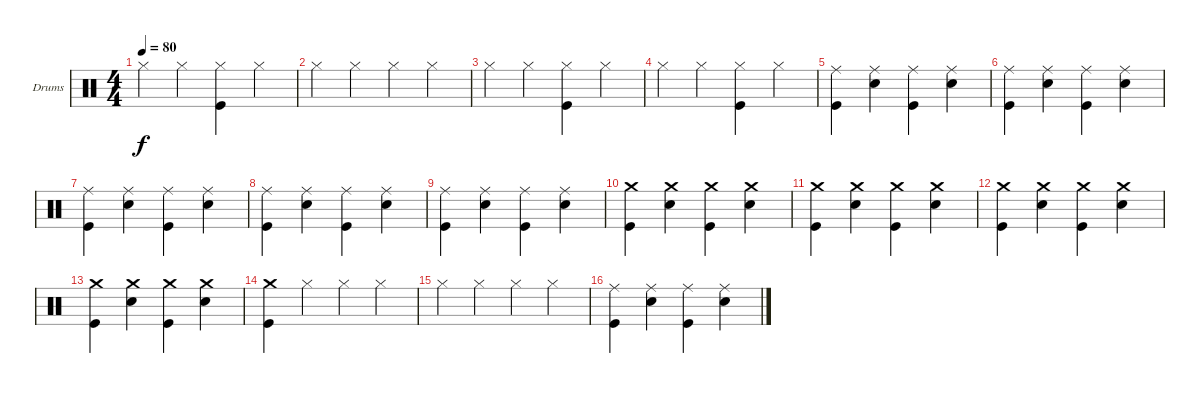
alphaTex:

\bracketExtendMode groupsimilarinstruments
\firstSystemTrackNameOrientation horizontal
\otherSystemsTrackNameOrientation horizontal
\track ("Drumkit" "Drums") {instrument percussion}
\staff {score}
\articulation defaults
\ts (4 4)
\tempo 80
\clef neutral
\ks c "Hi-Hat (closed)".4{dy f} "Hi-Hat (closed)".4
("Hi-Hat (closed)" "Kick (hit)").4 "Hi-Hat (closed)".4 |
"Hi-Hat (closed)".4 "Hi-Hat (closed)".4 "Hi-Hat (closed)".4 "Hi-Hat (closed)".4 |
"Hi-Hat (closed)".4 "Hi-Hat (closed)".4 ("Hi-Hat (closed)" "Kick (hit)").4 "Hi-Hat (closed)".4 |
"Hi-Hat (closed)".4 "Hi-Hat (closed)".4 ("Hi-Hat (closed)" "Kick (hit)").4 "Hi-Hat (closed)".4 |
("Ride (middle)" "Kick (hit)").4 ("Ride (middle)" "Snare (hit) 2").4 ("Ride (middle)" "Kick (hit)").4 ("Ride (middle)" "Snare (hit) 2").4 |
("Ride (middle)" "Kick (hit)").4 ("Ride (middle)" "Snare (hit) 2").4 ("Ride (middle)" "Kick (hit)").4 ("Ride (middle)" "Snare (hit) 2").4 |
("Ride (middle)" "Kick (hit)").4 ("Ride (middle)" "Snare (hit) 2").4 ("Ride (middle)" "Kick (hit)").4 ("Ride (middle)" "Snare (hit) 2").4 |
("Ride (middle)" "Kick (hit)").4 ("Ride (middle)" "Snare (hit) 2").4 ("Ride (middle)" "Kick (hit)").4 ("Ride (middle)" "Snare (hit) 2").4 |
("Ride (middle)" "Kick (hit)").4 ("Ride (middle)" "Snare (hit) 2").4 ("Ride (middle)" "Kick (hit)").4 ("Ride (middle)" "Snare (hit) 2").4 |
("Crash medium (hit)" "Kick (hit)").4 ("Crash medium (hit)" "Snare (hit) 2").4 ("Crash medium (hit)" "Kick (hit)").4 ("Crash medium (hit)" "Snare (hit) 2").4 |
("Crash medium (hit)" "Kick (hit)").4 ("Crash medium (hit)" "Snare (hit) 2").4 ("Crash medium (hit)" "Kick (hit)").4 ("Crash medium (hit)" "Snare (hit) 2").4 |
("Crash medium (hit)" "Kick (hit)").4 ("Crash medium (hit)" "Snare (hit) 2").4 ("Crash medium (hit)" "Kick (hit)").4 ("Crash medium (hit)" "Snare (hit) 2").4 |
("Crash medium (hit)" "Kick (hit)").4 ("Crash medium (hit)" "Snare (hit) 2").4 ("Crash medium (hit)" "Kick (hit)").4 ("Crash medium (hit)" "Snare (hit) 2").4 |
("Crash medium (hit)" "Kick (hit)").4 "Hi-Hat (closed)".4 "Hi-Hat (closed)".4 "Hi-Hat (closed)".4 |
"Hi-Hat (closed)".4 "Hi-Hat (closed)".4 "Hi-Hat (closed)".4 "Hi-Hat (closed)".4 |
("Ride (middle)" "Kick (hit)").4 ("Ride (middle)" "Snare (hit) 2").4 ("Ride (middle)" "Kick (hit)").4 ("Ride (middle)" "Snare (hit) 2").4
